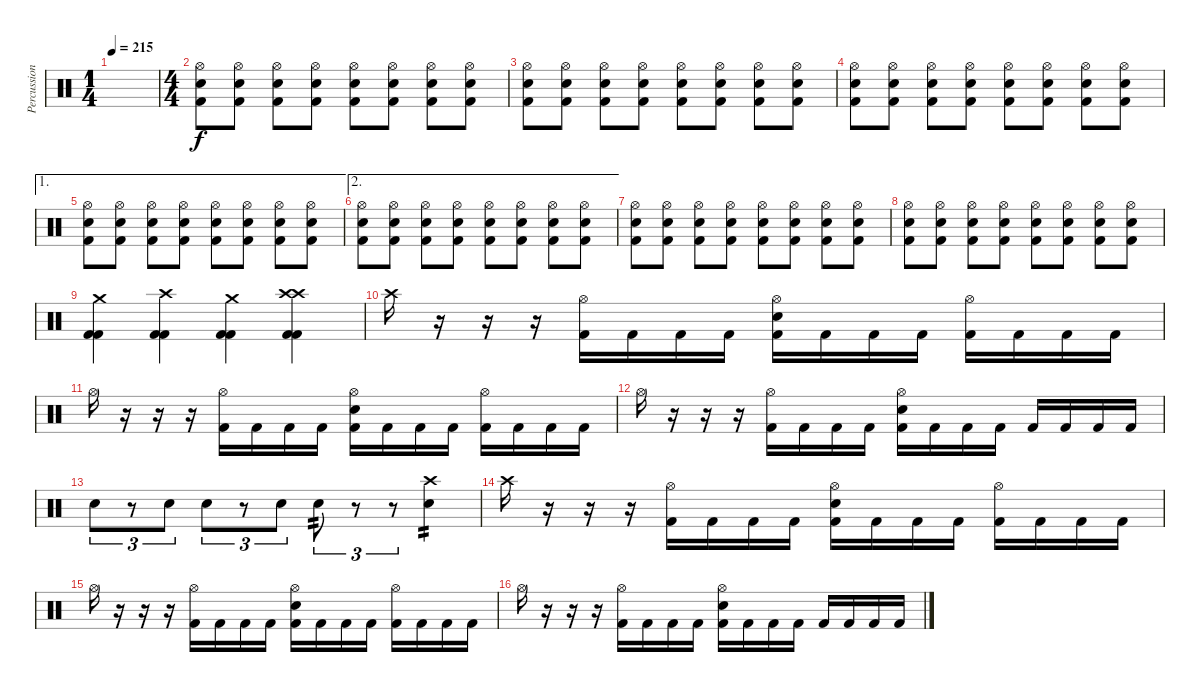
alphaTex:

\track ("Percussion" "Percussion") {instrument percussion}
\staff {score}
\articulation defaults
\ts (1 4)
\tempo 215
\clef neutral
\ks c
|
\ts (4 4)
("Hi-Hat (open)" "Electric Snare (hit)" "Kick (hit) 2").8 ("Hi-Hat (open)" "Electric Snare (hit)" "Kick (hit) 2").8 ("Hi-Hat (open)" "Electric Snare (hit)" "Kick (hit) 2").8 ("Hi-Hat (open)" "Electric Snare (hit)" "Kick (hit) 2").8 ("Hi-Hat (open)" "Electric Snare (hit)" "Kick (hit) 2").8 ("Hi-Hat (open)" "Electric Snare (hit)" "Kick (hit) 2").8 ("Hi-Hat (open)" "Electric Snare (hit)" "Kick (hit) 2").8 ("Hi-Hat (open)" "Electric Snare (hit)" "Kick (hit) 2").8 |
("Hi-Hat (open)" "Electric Snare (hit)" "Kick (hit) 2").8 ("Hi-Hat (open)" "Electric Snare (hit)" "Kick (hit) 2").8 ("Hi-Hat (open)" "Electric Snare (hit)" "Kick (hit) 2").8 ("Hi-Hat (open)" "Electric Snare (hit)" "Kick (hit) 2").8 ("Hi-Hat (open)" "Electric Snare (hit)" "Kick (hit) 2").8 ("Hi-Hat (open)" "Electric Snare (hit)" "Kick (hit) 2").8 ("Hi-Hat (open)" "Electric Snare (hit)" "Kick (hit) 2").8 ("Hi-Hat (open)" "Electric Snare (hit)" "Kick (hit) 2").8 |
("Hi-Hat (open)" "Electric Snare (hit)" "Kick (hit) 2").8 ("Hi-Hat (open)" "Electric Snare (hit)" "Kick (hit) 2").8 ("Hi-Hat (open)" "Electric Snare (hit)" "Kick (hit) 2").8 ("Hi-Hat (open)" "Electric Snare (hit)" "Kick (hit) 2").8 ("Hi-Hat (open)" "Electric Snare (hit)" "Kick (hit) 2").8 ("Hi-Hat (open)" "Electric Snare (hit)" "Kick (hit) 2").8 ("Hi-Hat (open)" "Electric Snare (hit)" "Kick (hit) 2").8 ("Hi-Hat (open)" "Electric Snare (hit)" "Kick (hit) 2").8 |
\ae 1
("Hi-Hat (open)" "Electric Snare (hit)" "Kick (hit) 2").8 ("Hi-Hat (open)" "Electric Snare (hit)" "Kick (hit) 2").8 ("Hi-Hat (open)" "Electric Snare (hit)" "Kick (hit) 2").8 ("Hi-Hat (open)" "Electric Snare (hit)" "Kick (hit) 2").8 ("Hi-Hat (open)" "Electric Snare (hit)" "Kick (hit) 2").8 ("Hi-Hat (open)" "Electric Snare (hit)" "Kick (hit) 2").8 ("Hi-Hat (open)" "Electric Snare (hit)" "Kick (hit) 2").8 ("Hi-Hat (open)" "Electric Snare (hit)" "Kick (hit) 2").8 |
\ae 2
("Hi-Hat (open)" "Electric Snare (hit)" "Kick (hit) 2").8 ("Hi-Hat (open)" "Electric Snare (hit)" "Kick (hit) 2").8 ("Hi-Hat (open)" "Electric Snare (hit)" "Kick (hit) 2").8 ("Hi-Hat (open)" "Electric Snare (hit)" "Kick (hit) 2").8 ("Hi-Hat (open)" "Electric Snare (hit)" "Kick (hit) 2").8 ("Hi-Hat (open)" "Electric Snare (hit)" "Kick (hit) 2").8 ("Hi-Hat (open)" "Electric Snare (hit)" "Kick (hit) 2").8 ("Hi-Hat (open)" "Electric Snare (hit)" "Kick (hit) 2").8 |
("Hi-Hat (open)" "Electric Snare (hit)" "Kick (hit) 2").8 ("Hi-Hat (open)" "Electric Snare (hit)" "Kick (hit) 2").8 ("Hi-Hat (open)" "Electric Snare (hit)" "Kick (hit) 2").8 ("Hi-Hat (open)" "Electric Snare (hit)" "Kick (hit) 2").8 ("Hi-Hat (open)" "Electric Snare (hit)" "Kick (hit) 2").8 ("Hi-Hat (open)" "Electric Snare (hit)" "Kick (hit) 2").8 ("Hi-Hat (open)" "Electric Snare (hit)" "Kick (hit) 2").8 ("Hi-Hat (open)" "Electric Snare (hit)" "Kick (hit) 2").8 |
("Hi-Hat (open)" "Electric Snare (hit)" "Kick (hit) 2").8 ("Hi-Hat (open)" "Electric Snare (hit)" "Kick (hit) 2").8 ("Hi-Hat (open)" "Electric Snare (hit)" "Kick (hit) 2").8 ("Hi-Hat (open)" "Electric Snare (hit)" "Kick (hit) 2").8 ("Hi-Hat (open)" "Electric Snare (hit)" "Kick (hit) 2").8 ("Hi-Hat (open)" "Electric Snare (hit)" "Kick (hit) 2").8 ("Hi-Hat (open)" "Electric Snare (hit)" "Kick (hit) 2").8 ("Hi-Hat (open)" "Electric Snare (hit)" "Kick (hit) 2").8 |
("Crash medium (hit)" "Kick (hit) 2" "Kick (hit) 2").4 ("Crash high (hit)" "Kick (hit) 2" "Kick (hit) 2").4 ("Crash medium (hit)" "Kick (hit) 2" "Kick (hit) 2").4 ("Crash high (hit)" "Crash high (hit)" "Kick (hit) 2" "Kick (hit) 2").4 |
"Crash high (hit)".16 r.16 r.16 r.16 ("Hi-Hat (open)" "Kick (hit) 2").16 "Kick (hit) 2".16 "Kick (hit) 2".16 "Kick (hit) 2".16 ("Hi-Hat (open)" "Electric Snare (hit)" "Kick (hit) 2").16 "Kick (hit) 2".16 "Kick (hit) 2".16 "Kick (hit) 2".16 ("Hi-Hat (open)" "Kick (hit) 2").16 "Kick (hit) 2".16 "Kick (hit) 2".16 "Kick (hit) 2".16 |
"Hi-Hat (open)".16 r.16 r.16 r.16 ("Hi-Hat (open)" "Kick (hit) 2").16 "Kick (hit) 2".16 "Kick (hit) 2".16 "Kick (hit) 2".16 ("Hi-Hat (open)" "Electric Snare (hit)" "Kick (hit) 2").16 "Kick (hit) 2".16 "Kick (hit) 2".16 "Kick (hit) 2".16 ("Hi-Hat (open)" "Kick (hit) 2").16 "Kick (hit) 2".16 "Kick (hit) 2".16 "Kick (hit) 2".16 |
"Hi-Hat (open)".16 r.16 r.16 r.16 ("Hi-Hat (open)" "Kick (hit) 2").16 "Kick (hit) 2".16 "Kick (hit) 2".16 "Kick (hit) 2".16 ("Hi-Hat (open)" "Electric Snare (hit)" "Kick (hit) 2").16 "Kick (hit) 2".16 "Kick (hit) 2".16 "Kick (hit) 2".16 "Kick (hit) 2".16 "Kick (hit) 2".16 "Kick (hit) 2".16 "Kick (hit) 2".16 |
"Electric Snare (hit)".8{tu (3 2)} r.8{tu (3 2)} "Electric Snare (hit)".8{tu (3 2)} "Electric Snare (hit)".8{tu (3 2)} r.8{tu (3 2)} "Electric Snare (hit)".8{tu (3 2)} "Electric Snare (hit)".8{tu (3 2) tp 2} r.8{tu (3 2)} r.8{tu (3 2)} ("Crash high (hit)" "Electric Snare (hit)").4{tp 2} |
"Crash high (hit)".16 r.16 r.16 r.16 ("Hi-Hat (open)" "Kick (hit) 2").16 "Kick (hit) 2".16 "Kick (hit) 2".16 "Kick (hit) 2".16 ("Hi-Hat (open)" "Electric Snare (hit)" "Kick (hit) 2").16 "Kick (hit) 2".16 "Kick (hit) 2".16 "Kick (hit) 2".16 ("Hi-Hat (open)" "Kick (hit) 2").16 "Kick (hit) 2".16 "Kick (hit) 2".16 "Kick (hit) 2".16 |
"Hi-Hat (open)".16 r.16 r.16 r.16 ("Hi-Hat (open)" "Kick (hit) 2").16 "Kick (hit) 2".16 "Kick (hit) 2".16 "Kick (hit) 2".16 ("Hi-Hat (open)" "Electric Snare (hit)" "Kick (hit) 2").16 "Kick (hit) 2".16 "Kick (hit) 2".16 "Kick (hit) 2".16 ("Hi-Hat (open)" "Kick (hit) 2").16 "Kick (hit) 2".16 "Kick (hit) 2".16 "Kick (hit) 2".16 |
"Hi-Hat (open)".16 r.16 r.16 r.16 ("Hi-Hat (open)" "Kick (hit) 2").16 "Kick (hit) 2".16 "Kick (hit) 2".16 "Kick (hit) 2".16 ("Hi-Hat (open)" "Electric Snare (hit)" "Kick (hit) 2").16 "Kick (hit) 2".16 "Kick (hit) 2".16 "Kick (hit) 2".16 "Kick (hit) 2".16 "Kick (hit) 2".16 "Kick (hit) 2".16 "Kick (hit) 2".16
